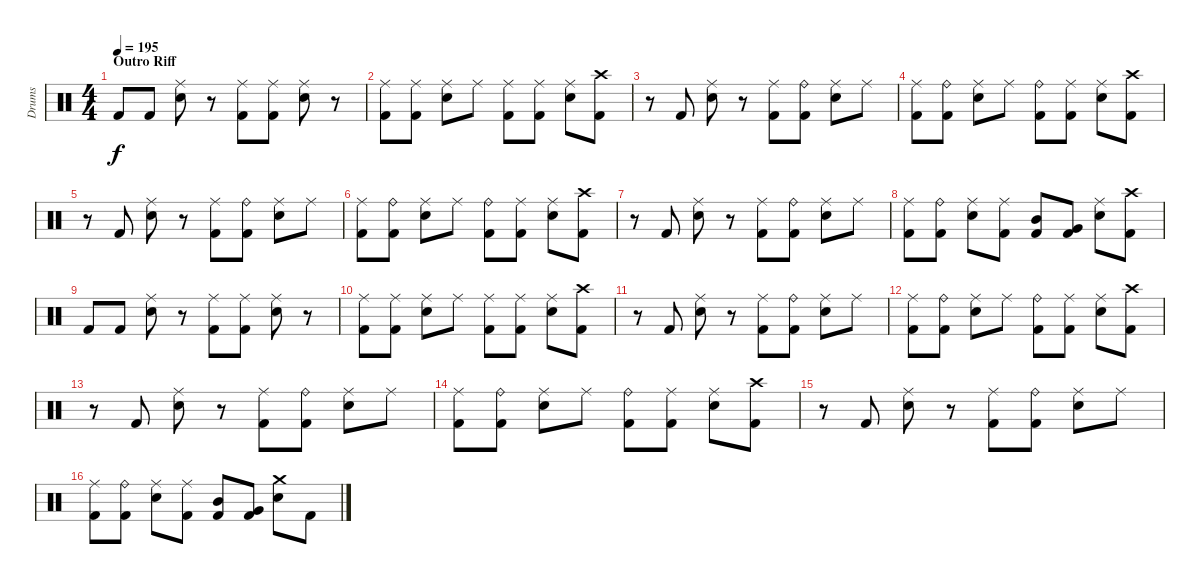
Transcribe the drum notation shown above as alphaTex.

\track ("Drums" "Drums") {instrument percussion}
\staff {score}
\articulation defaults
\ts (4 4)
\section ("" "Outro Riff")
\tempo 195
\clef neutral
\ks c "Kick (hit) 2".8{dy f} "Kick (hit) 2".8
("Ride (middle)" "Snare (hit) 2").8 r.8 ("Ride (middle)" "Kick (hit) 2").8 ("Ride (middle)" "Kick (hit) 2").8 ("Ride (middle)" "Snare (hit) 2").8 r.8 |
("Ride (middle)" "Kick (hit) 2").8 ("Ride (middle)" "Kick (hit) 2").8 ("Ride (middle)" "Snare (hit) 2").8 "Ride (middle)".8 ("Ride (middle)" "Kick (hit) 2").8 ("Ride (middle)" "Kick (hit) 2").8 ("Ride (middle)" "Snare (hit) 2").8 ("Crash high (hit)" "Kick (hit) 2").8 |
r.8 "Kick (hit) 2".8 ("Ride (middle)" "Snare (hit) 2").8 r.8 ("Ride (middle)" "Kick (hit) 2").8 ("Ride (bell)" "Kick (hit) 2").8 ("Ride (middle)" "Snare (hit) 2").8 "Ride (middle)".8 |
("Ride (middle)" "Kick (hit) 2").8 ("Ride (bell)" "Kick (hit) 2").8 ("Ride (middle)" "Snare (hit) 2").8 "Ride (middle)".8 ("Ride (bell)" "Kick (hit) 2").8 ("Ride (middle)" "Kick (hit) 2").8 ("Ride (middle)" "Snare (hit) 2").8 ("Crash high (hit)" "Kick (hit) 2").8 |
r.8 "Kick (hit) 2".8 ("Ride (middle)" "Snare (hit) 2").8 r.8 ("Ride (middle)" "Kick (hit) 2").8 ("Ride (bell)" "Kick (hit) 2").8 ("Ride (middle)" "Snare (hit) 2").8 "Ride (middle)".8 |
("Ride (middle)" "Kick (hit) 2").8 ("Ride (bell)" "Kick (hit) 2").8 ("Ride (middle)" "Snare (hit) 2").8 "Ride (middle)".8 ("Ride (bell)" "Kick (hit) 2").8 ("Ride (middle)" "Kick (hit) 2").8 ("Ride (middle)" "Snare (hit) 2").8 ("Crash high (hit)" "Kick (hit) 2").8 |
r.8 "Kick (hit) 2".8 ("Ride (middle)" "Snare (hit) 2").8 r.8 ("Ride (middle)" "Kick (hit) 2").8 ("Ride (bell)" "Kick (hit) 2").8 ("Ride (middle)" "Snare (hit) 2").8 "Ride (middle)".8 |
("Ride (middle)" "Kick (hit) 2").8 ("Ride (bell)" "Kick (hit) 2").8 ("Ride (middle)" "Snare (hit) 2").8 ("Ride (middle)" "Kick (hit) 2").8 ("Mid Tom (hit)" "Kick (hit) 2").8 ("Very Low Tom (hit)" "Kick (hit) 2").8 ("Ride (middle)" "Snare (hit) 2").8 ("Crash high (hit)" "Kick (hit) 2").8 |
\section ("" "")
"Kick (hit) 2".8 "Kick (hit) 2".8 ("Ride (middle)" "Snare (hit) 2").8 r.8 ("Ride (middle)" "Kick (hit) 2").8 ("Ride (middle)" "Kick (hit) 2").8 ("Ride (middle)" "Snare (hit) 2").8 r.8 |
("Ride (middle)" "Kick (hit) 2").8 ("Ride (middle)" "Kick (hit) 2").8 ("Ride (middle)" "Snare (hit) 2").8 "Ride (middle)".8 ("Ride (middle)" "Kick (hit) 2").8 ("Ride (middle)" "Kick (hit) 2").8 ("Ride (middle)" "Snare (hit) 2").8 ("Crash high (hit)" "Kick (hit) 2").8 |
r.8 "Kick (hit) 2".8 ("Ride (middle)" "Snare (hit) 2").8 r.8 ("Ride (middle)" "Kick (hit) 2").8 ("Ride (bell)" "Kick (hit) 2").8 ("Ride (middle)" "Snare (hit) 2").8 "Ride (middle)".8 |
("Ride (middle)" "Kick (hit) 2").8 ("Ride (bell)" "Kick (hit) 2").8 ("Ride (middle)" "Snare (hit) 2").8 "Ride (middle)".8 ("Ride (bell)" "Kick (hit) 2").8 ("Ride (middle)" "Kick (hit) 2").8 ("Ride (middle)" "Snare (hit) 2").8 ("Crash high (hit)" "Kick (hit) 2").8 |
r.8 "Kick (hit) 2".8 ("Ride (middle)" "Snare (hit) 2").8 r.8 ("Ride (middle)" "Kick (hit) 2").8 ("Ride (bell)" "Kick (hit) 2").8 ("Ride (middle)" "Snare (hit) 2").8 "Ride (middle)".8 |
("Ride (middle)" "Kick (hit) 2").8 ("Ride (bell)" "Kick (hit) 2").8 ("Ride (middle)" "Snare (hit) 2").8 "Ride (middle)".8 ("Ride (bell)" "Kick (hit) 2").8 ("Ride (middle)" "Kick (hit) 2").8 ("Ride (middle)" "Snare (hit) 2").8 ("Crash high (hit)" "Kick (hit) 2").8 |
r.8 "Kick (hit) 2".8 ("Ride (middle)" "Snare (hit) 2").8 r.8 ("Ride (middle)" "Kick (hit) 2").8 ("Ride (bell)" "Kick (hit) 2").8 ("Ride (middle)" "Snare (hit) 2").8 "Ride (middle)".8 |
("Ride (middle)" "Kick (hit) 2").8 ("Ride (bell)" "Kick (hit) 2").8 ("Ride (middle)" "Snare (hit) 2").8 ("Ride (middle)" "Kick (hit) 2").8 ("Mid Tom (hit)" "Kick (hit) 2").8 ("Very Low Tom (hit)" "Kick (hit) 2").8 ("Crash medium (hit)" "Snare (hit) 2").8 "Kick (hit) 2".8
